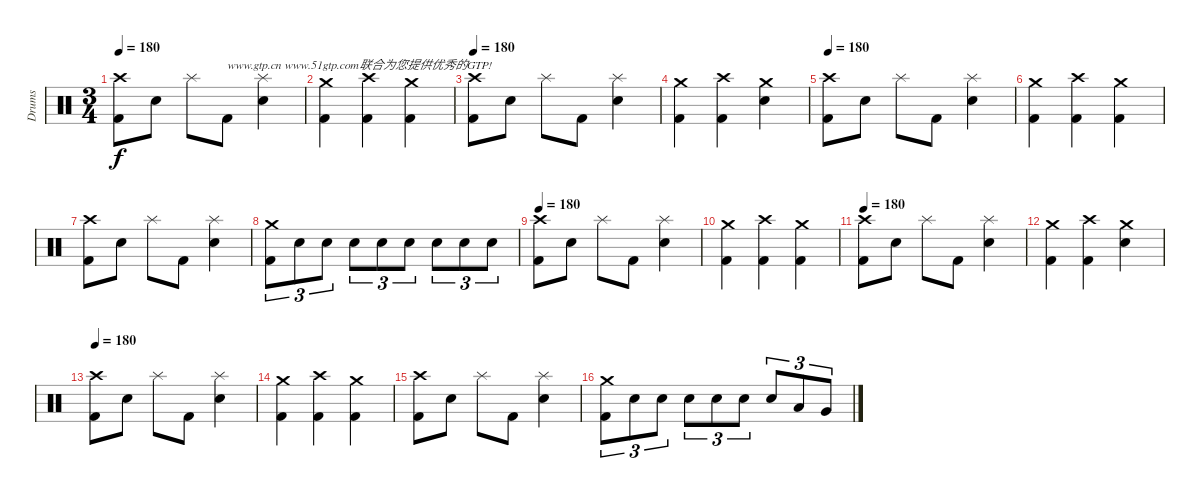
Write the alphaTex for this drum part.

\track ("Drums" "Drums") {instrument percussion}
\staff {score}
\articulation defaults
\ts (3 4)
\tempo 180
\clef neutral
\ks c
("Crash high (hit)" "Kick (hit) 2").8{dy f} "Snare (hit) 2".8 "Splash (hit)".8 "Kick (hit) 2".8{txt "www.gtp.cn www.51gtp.com联合为您提供优秀的GTP!"} ("Splash (hit)" "Snare (hit) 2").4 |
("Crash medium (hit)" "Kick (hit) 2").4 ("Crash high (hit)" "Kick (hit) 2").4 ("Crash medium (hit)" "Kick (hit) 2").4 |
\tempo 180
("Crash high (hit)" "Kick (hit) 2").8 "Snare (hit) 2".8 "Splash (hit)".8 "Kick (hit) 2".8 ("Splash (hit)" "Snare (hit) 2").4 |
("Crash medium (hit)" "Kick (hit) 2").4 ("Crash high (hit)" "Kick (hit) 2").4 ("Crash medium (hit)" "Snare (hit) 2").4 |
\tempo 180
("Crash high (hit)" "Kick (hit) 2").8 "Snare (hit) 2".8 "Splash (hit)".8 "Kick (hit) 2".8 ("Splash (hit)" "Snare (hit) 2").4 |
("Crash medium (hit)" "Kick (hit) 2").4 ("Crash high (hit)" "Kick (hit) 2").4 ("Crash medium (hit)" "Kick (hit) 2").4 |
("Crash high (hit)" "Kick (hit) 2").8 "Snare (hit) 2".8 "Splash (hit)".8 "Kick (hit) 2".8 ("Splash (hit)" "Snare (hit) 2").4 |
("Crash medium (hit)" "Kick (hit) 2").8{tu (3 2)} "Snare (hit) 2".8{tu (3 2)} "Snare (hit) 2".8{tu (3 2)} "Snare (hit) 2".8{tu (3 2)} "Snare (hit) 2".8{tu (3 2)} "Snare (hit) 2".8{tu (3 2)} "Snare (hit) 2".8{tu (3 2)} "Snare (hit) 2".8{tu (3 2)} "Snare (hit) 2".8{tu (3 2)} |
\tempo 180
("Crash high (hit)" "Kick (hit) 2").8 "Snare (hit) 2".8 "Splash (hit)".8 "Kick (hit) 2".8 ("Splash (hit)" "Snare (hit) 2").4 |
("Crash medium (hit)" "Kick (hit) 2").4 ("Crash high (hit)" "Kick (hit) 2").4 ("Crash medium (hit)" "Kick (hit) 2").4 |
\tempo 180
("Crash high (hit)" "Kick (hit) 2").8 "Snare (hit) 2".8 "Splash (hit)".8 "Kick (hit) 2".8 ("Splash (hit)" "Snare (hit) 2").4 |
("Crash medium (hit)" "Kick (hit) 2").4 ("Crash high (hit)" "Kick (hit) 2").4 ("Crash medium (hit)" "Snare (hit) 2").4 |
\tempo 180
("Crash high (hit)" "Kick (hit) 2").8 "Snare (hit) 2".8 "Splash (hit)".8 "Kick (hit) 2".8 ("Splash (hit)" "Snare (hit) 2").4 |
("Crash medium (hit)" "Kick (hit) 2").4 ("Crash high (hit)" "Kick (hit) 2").4 ("Crash medium (hit)" "Kick (hit) 2").4 |
("Crash high (hit)" "Kick (hit) 2").8 "Snare (hit) 2".8 "Splash (hit)".8 "Kick (hit) 2".8 ("Splash (hit)" "Snare (hit) 2").4 |
("Crash medium (hit)" "Kick (hit) 2").8{tu (3 2)} "Snare (hit) 2".8{tu (3 2)} "Snare (hit) 2".8{tu (3 2)} "Snare (hit) 2".8{tu (3 2)} "Snare (hit) 2".8{tu (3 2)} "Snare (hit) 2".8{tu (3 2)} "Snare (hit) 2".8{tu (3 2)} "Low Tom (hit)".8{tu (3 2)} "Very Low Tom (hit)".8{tu (3 2)}
